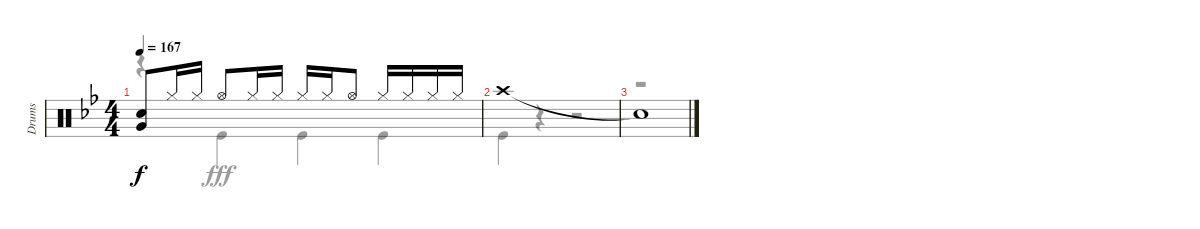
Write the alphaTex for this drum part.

\track ("Drums" "Drums") {instrument percussion}
\staff {score}
\articulation defaults
\voice
\ts (4 4)
\tempo 167
\clef neutral
\ks bb
("Snare (hit) 2" "Very Low Tom (hit)").8{dy f} "Hi-Hat (closed)".16 "Hi-Hat (closed)".16 "Hi-Hat (open)".8 "Hi-Hat (closed)".16 "Hi-Hat (closed)".16 "Hi-Hat (closed)".16 "Hi-Hat (closed)".16 "Hi-Hat (open)".8 "Hi-Hat (closed)".16 "Hi-Hat (closed)".16 "Hi-Hat (closed)".16 "Hi-Hat (closed)".16 |
"Crash high (hit)".1 |
"Snare (hit)"{t}.1
\voice
\clef neutral
\ottava regular
\simile none
\ks bb
r.4{dy fff} "Kick (hit)".4 "Kick (hit)".4 "Kick (hit)".4 |
"Kick (hit)".4 r.4 r.2 |
r.1
